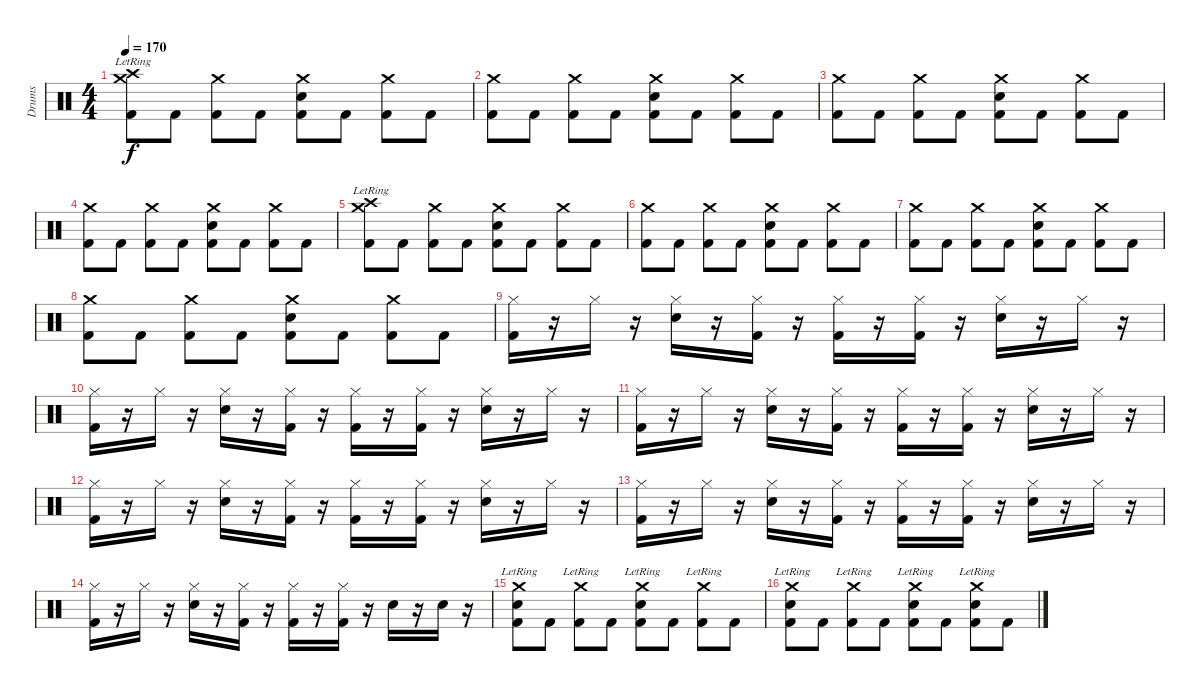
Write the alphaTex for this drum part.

\track ("Drums" "Drums") {instrument percussion}
\staff {score}
\articulation defaults
\ts (4 4)
\tempo 170
\clef neutral
\ks c
("Crash medium (hit)"{lr} "Crash high (hit)"{lr} "Kick (hit) 2").8{dy f} "Kick (hit) 2".8 ("Crash medium (hit)" "Kick (hit) 2").8 "Kick (hit) 2".8 ("Crash medium (hit)" "Electric Snare (hit)" "Kick (hit) 2").8 "Kick (hit) 2".8 ("Crash medium (hit)" "Kick (hit) 2").8 "Kick (hit) 2".8 |
("Crash medium (hit)" "Kick (hit) 2").8 "Kick (hit) 2".8 ("Crash medium (hit)" "Kick (hit) 2").8 "Kick (hit) 2".8 ("Crash medium (hit)" "Electric Snare (hit)" "Kick (hit) 2").8 "Kick (hit) 2".8 ("Crash medium (hit)" "Kick (hit) 2").8 "Kick (hit) 2".8 |
("Crash medium (hit)" "Kick (hit) 2").8 "Kick (hit) 2".8 ("Crash medium (hit)" "Kick (hit) 2").8 "Kick (hit) 2".8 ("Crash medium (hit)" "Electric Snare (hit)" "Kick (hit) 2").8 "Kick (hit) 2".8 ("Crash medium (hit)" "Kick (hit) 2").8 "Kick (hit) 2".8 |
("Crash medium (hit)" "Kick (hit) 2").8 "Kick (hit) 2".8 ("Crash medium (hit)" "Kick (hit) 2").8 "Kick (hit) 2".8 ("Crash medium (hit)" "Electric Snare (hit)" "Kick (hit) 2").8 "Kick (hit) 2".8 ("Crash medium (hit)" "Kick (hit) 2").8 "Kick (hit) 2".8 |
("Crash medium (hit)"{lr} "Crash high (hit)"{lr} "Kick (hit) 2").8 "Kick (hit) 2".8 ("Crash medium (hit)" "Kick (hit) 2").8 "Kick (hit) 2".8 ("Crash medium (hit)" "Electric Snare (hit)" "Kick (hit) 2").8 "Kick (hit) 2".8 ("Crash medium (hit)" "Kick (hit) 2").8 "Kick (hit) 2".8 |
("Crash medium (hit)" "Kick (hit) 2").8 "Kick (hit) 2".8 ("Crash medium (hit)" "Kick (hit) 2").8 "Kick (hit) 2".8 ("Crash medium (hit)" "Electric Snare (hit)" "Kick (hit) 2").8 "Kick (hit) 2".8 ("Crash medium (hit)" "Kick (hit) 2").8 "Kick (hit) 2".8 |
("Crash medium (hit)" "Kick (hit) 2").8 "Kick (hit) 2".8 ("Crash medium (hit)" "Kick (hit) 2").8 "Kick (hit) 2".8 ("Crash medium (hit)" "Electric Snare (hit)" "Kick (hit) 2").8 "Kick (hit) 2".8 ("Crash medium (hit)" "Kick (hit) 2").8 "Kick (hit) 2".8 |
("Crash medium (hit)" "Kick (hit) 2").8 "Kick (hit) 2".8 ("Crash medium (hit)" "Kick (hit) 2").8 "Kick (hit) 2".8 ("Crash medium (hit)" "Electric Snare (hit)" "Kick (hit) 2").8 "Kick (hit) 2".8 ("Crash medium (hit)" "Kick (hit) 2").8 "Kick (hit) 2".8 |
("Kick (hit) 2" "Hi-Hat (closed)").16 r.16 "Hi-Hat (closed)".16 r.16 ("Hi-Hat (closed)" "Electric Snare (hit)").16 r.16 ("Kick (hit) 2" "Hi-Hat (closed)").16 r.16 ("Kick (hit) 2" "Hi-Hat (closed)").16 r.16 ("Kick (hit) 2" "Hi-Hat (closed)").16 r.16 ("Hi-Hat (closed)" "Electric Snare (hit)").16 r.16 "Hi-Hat (closed)".16 r.16 |
("Kick (hit) 2" "Hi-Hat (closed)").16 r.16 "Hi-Hat (closed)".16 r.16 ("Hi-Hat (closed)" "Electric Snare (hit)").16 r.16 ("Kick (hit) 2" "Hi-Hat (closed)").16 r.16 ("Kick (hit) 2" "Hi-Hat (closed)").16 r.16 ("Kick (hit) 2" "Hi-Hat (closed)").16 r.16 ("Hi-Hat (closed)" "Electric Snare (hit)").16 r.16 "Hi-Hat (closed)".16 r.16 |
("Kick (hit) 2" "Hi-Hat (closed)").16 r.16 "Hi-Hat (closed)".16 r.16 ("Hi-Hat (closed)" "Electric Snare (hit)").16 r.16 ("Kick (hit) 2" "Hi-Hat (closed)").16 r.16 ("Kick (hit) 2" "Hi-Hat (closed)").16 r.16 ("Kick (hit) 2" "Hi-Hat (closed)").16 r.16 ("Hi-Hat (closed)" "Electric Snare (hit)").16 r.16 "Hi-Hat (closed)".16 r.16 |
("Kick (hit) 2" "Hi-Hat (closed)").16 r.16 "Hi-Hat (closed)".16 r.16 ("Hi-Hat (closed)" "Electric Snare (hit)").16 r.16 ("Kick (hit) 2" "Hi-Hat (closed)").16 r.16 ("Kick (hit) 2" "Hi-Hat (closed)").16 r.16 ("Kick (hit) 2" "Hi-Hat (closed)").16 r.16 ("Hi-Hat (closed)" "Electric Snare (hit)").16 r.16 "Hi-Hat (closed)".16 r.16 |
("Kick (hit) 2" "Hi-Hat (closed)").16 r.16 "Hi-Hat (closed)".16 r.16 ("Hi-Hat (closed)" "Electric Snare (hit)").16 r.16 ("Kick (hit) 2" "Hi-Hat (closed)").16 r.16 ("Kick (hit) 2" "Hi-Hat (closed)").16 r.16 ("Kick (hit) 2" "Hi-Hat (closed)").16 r.16 ("Hi-Hat (closed)" "Electric Snare (hit)").16 r.16 "Hi-Hat (closed)".16 r.16 |
("Kick (hit) 2" "Hi-Hat (closed)").16 r.16 "Hi-Hat (closed)".16 r.16 ("Hi-Hat (closed)" "Electric Snare (hit)").16 r.16 ("Kick (hit) 2" "Hi-Hat (closed)").16 r.16 ("Kick (hit) 2" "Hi-Hat (closed)").16 r.16 ("Kick (hit) 2" "Hi-Hat (closed)").16 r.16 "Electric Snare (hit)".16 r.16 "Electric Snare (hit)".16 r.16 |
("Crash medium (hit)"{lr} "Electric Snare (hit)" "Kick (hit) 2").8 "Kick (hit) 2".8 ("Crash medium (hit)"{lr} "Kick (hit) 2").8 "Kick (hit) 2".8 ("Crash medium (hit)"{lr} "Electric Snare (hit)" "Kick (hit) 2").8 "Kick (hit) 2".8 ("Crash medium (hit)"{lr} "Kick (hit) 2").8 "Kick (hit) 2".8 |
("Crash medium (hit)"{lr} "Electric Snare (hit)" "Kick (hit) 2").8 "Kick (hit) 2".8 ("Crash medium (hit)"{lr} "Kick (hit) 2").8 "Kick (hit) 2".8 ("Crash medium (hit)"{lr} "Electric Snare (hit)" "Kick (hit) 2").8 "Kick (hit) 2".8 ("Crash medium (hit)"{lr} "Electric Snare (hit)" "Kick (hit) 2").8 "Kick (hit) 2".8
